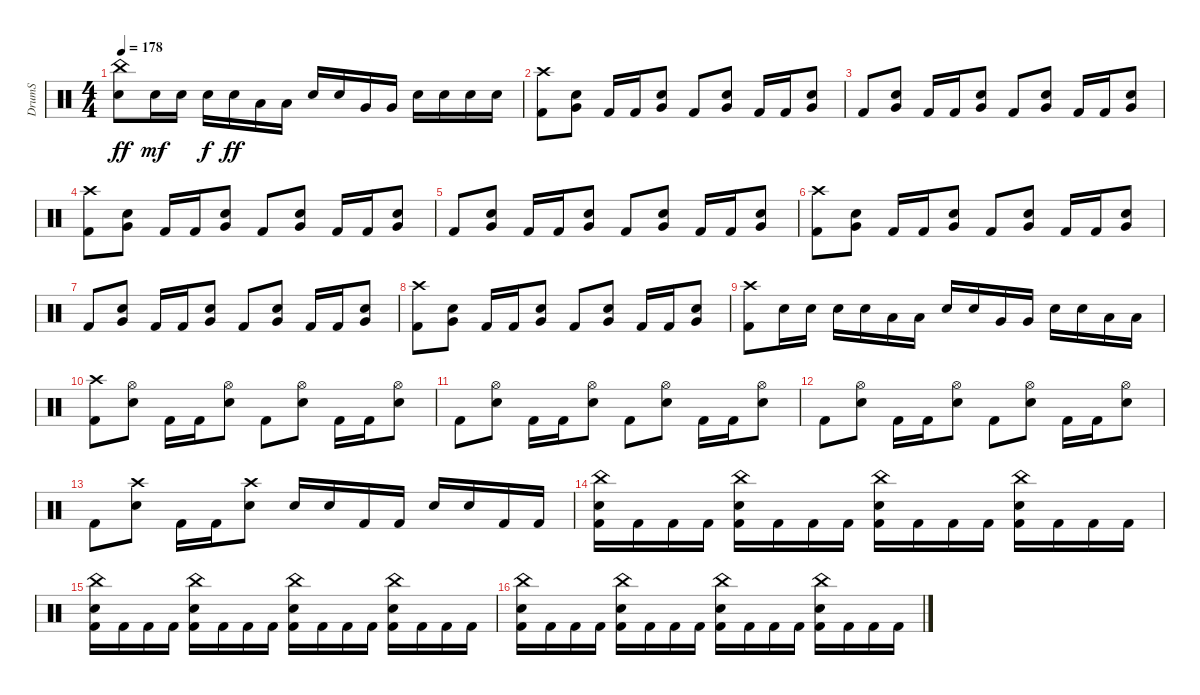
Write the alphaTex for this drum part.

\track ("DrumS" "DrumS") {instrument percussion}
\staff {score}
\articulation defaults
\ts (4 4)
\tempo 178
\clef neutral
\ks c
("China (hit)" "Electric Snare (hit)").8{dy ff} "Electric Snare (hit)".16{dy mf} "Electric Snare (hit)".16 "Electric Snare (hit)".16{dy f} "Electric Snare (hit)".16{dy ff} "Low Tom (hit)".16 "Low Tom (hit)".16 "Electric Snare (hit)".16 "Electric Snare (hit)".16 "Very Low Tom (hit)".16 "Very Low Tom (hit)".16 "Electric Snare (hit)".16 "Electric Snare (hit)".16 "Electric Snare (hit)".16 "Electric Snare (hit)".16 |
("Crash high (hit)" "Kick (hit) 2").8 ("Very Low Tom (hit)" "Electric Snare (hit)").8 "Kick (hit) 2".16 "Kick (hit) 2".16 ("Very Low Tom (hit)" "Electric Snare (hit)").8 "Kick (hit) 2".8 ("Very Low Tom (hit)" "Electric Snare (hit)").8 "Kick (hit) 2".16 "Kick (hit) 2".16 ("Very Low Tom (hit)" "Electric Snare (hit)").8 |
"Kick (hit) 2".8 ("Very Low Tom (hit)" "Electric Snare (hit)").8 "Kick (hit) 2".16 "Kick (hit) 2".16 ("Very Low Tom (hit)" "Electric Snare (hit)").8 "Kick (hit) 2".8 ("Very Low Tom (hit)" "Electric Snare (hit)").8 "Kick (hit) 2".16 "Kick (hit) 2".16 ("Very Low Tom (hit)" "Electric Snare (hit)").8 |
("Crash high (hit)" "Kick (hit) 2").8 ("Very Low Tom (hit)" "Electric Snare (hit)").8 "Kick (hit) 2".16 "Kick (hit) 2".16 ("Very Low Tom (hit)" "Electric Snare (hit)").8 "Kick (hit) 2".8 ("Very Low Tom (hit)" "Electric Snare (hit)").8 "Kick (hit) 2".16 "Kick (hit) 2".16 ("Very Low Tom (hit)" "Electric Snare (hit)").8 |
"Kick (hit) 2".8 ("Very Low Tom (hit)" "Electric Snare (hit)").8 "Kick (hit) 2".16 "Kick (hit) 2".16 ("Very Low Tom (hit)" "Electric Snare (hit)").8 "Kick (hit) 2".8 ("Very Low Tom (hit)" "Electric Snare (hit)").8 "Kick (hit) 2".16 "Kick (hit) 2".16 ("Very Low Tom (hit)" "Electric Snare (hit)").8 |
("Crash high (hit)" "Kick (hit) 2").8 ("Very Low Tom (hit)" "Electric Snare (hit)").8 "Kick (hit) 2".16 "Kick (hit) 2".16 ("Very Low Tom (hit)" "Electric Snare (hit)").8 "Kick (hit) 2".8 ("Very Low Tom (hit)" "Electric Snare (hit)").8 "Kick (hit) 2".16 "Kick (hit) 2".16 ("Very Low Tom (hit)" "Electric Snare (hit)").8 |
"Kick (hit) 2".8 ("Very Low Tom (hit)" "Electric Snare (hit)").8 "Kick (hit) 2".16 "Kick (hit) 2".16 ("Very Low Tom (hit)" "Electric Snare (hit)").8 "Kick (hit) 2".8 ("Very Low Tom (hit)" "Electric Snare (hit)").8 "Kick (hit) 2".16 "Kick (hit) 2".16 ("Very Low Tom (hit)" "Electric Snare (hit)").8 |
("Crash high (hit)" "Kick (hit) 2").8 ("Very Low Tom (hit)" "Electric Snare (hit)").8 "Kick (hit) 2".16 "Kick (hit) 2".16 ("Very Low Tom (hit)" "Electric Snare (hit)").8 "Kick (hit) 2".8 ("Very Low Tom (hit)" "Electric Snare (hit)").8 "Kick (hit) 2".16 "Kick (hit) 2".16 ("Very Low Tom (hit)" "Electric Snare (hit)").8 |
("Crash high (hit)" "Kick (hit) 2").8 "Electric Snare (hit)".16 "Electric Snare (hit)".16 "Electric Snare (hit)".16 "Electric Snare (hit)".16 "Low Tom (hit)".16 "Low Tom (hit)".16 "Electric Snare (hit)".16 "Electric Snare (hit)".16 "Very Low Tom (hit)".16 "Very Low Tom (hit)".16 "Electric Snare (hit)".16 "Electric Snare (hit)".16 "Low Floor Tom (hit)".16 "Low Floor Tom (hit)".16 |
("Crash high (hit)" "Kick (hit) 2").8 ("Hi-Hat (open)" "Electric Snare (hit)").8 "Kick (hit) 2".16 "Kick (hit) 2".16 ("Hi-Hat (open)" "Electric Snare (hit)").8 "Kick (hit) 2".8 ("Hi-Hat (open)" "Electric Snare (hit)").8 "Kick (hit) 2".16 "Kick (hit) 2".16 ("Hi-Hat (open)" "Electric Snare (hit)").8 |
"Kick (hit) 2".8 ("Hi-Hat (open)" "Electric Snare (hit)").8 "Kick (hit) 2".16 "Kick (hit) 2".16 ("Hi-Hat (open)" "Electric Snare (hit)").8 "Kick (hit) 2".8 ("Hi-Hat (open)" "Electric Snare (hit)").8 "Kick (hit) 2".16 "Kick (hit) 2".16 ("Hi-Hat (open)" "Electric Snare (hit)").8 |
"Kick (hit) 2".8 ("Hi-Hat (open)" "Electric Snare (hit)").8 "Kick (hit) 2".16 "Kick (hit) 2".16 ("Hi-Hat (open)" "Electric Snare (hit)").8 "Kick (hit) 2".8 ("Hi-Hat (open)" "Electric Snare (hit)").8 "Kick (hit) 2".16 "Kick (hit) 2".16 ("Hi-Hat (open)" "Electric Snare (hit)").8 |
"Kick (hit) 2".8 ("Crash high (hit)" "Electric Snare (hit)").8 "Kick (hit) 2".16 "Kick (hit) 2".16 ("Crash high (hit)" "Electric Snare (hit)").8 "Electric Snare (hit)".16 "Electric Snare (hit)".16 "Kick (hit) 2".16 "Kick (hit) 2".16 "Electric Snare (hit)".16 "Electric Snare (hit)".16 "Kick (hit) 2".16 "Kick (hit) 2".16 |
("China (hit)" "Electric Snare (hit)" "Kick (hit) 2").16 "Kick (hit) 2".16 "Kick (hit) 2".16 "Kick (hit) 2".16 ("China (hit)" "Electric Snare (hit)" "Kick (hit) 2").16 "Kick (hit) 2".16 "Kick (hit) 2".16 "Kick (hit) 2".16 ("China (hit)" "Electric Snare (hit)" "Kick (hit) 2").16 "Kick (hit) 2".16 "Kick (hit) 2".16 "Kick (hit) 2".16 ("China (hit)" "Electric Snare (hit)" "Kick (hit) 2").16 "Kick (hit) 2".16 "Kick (hit) 2".16 "Kick (hit) 2".16 |
("China (hit)" "Electric Snare (hit)" "Kick (hit) 2").16 "Kick (hit) 2".16 "Kick (hit) 2".16 "Kick (hit) 2".16 ("China (hit)" "Electric Snare (hit)" "Kick (hit) 2").16 "Kick (hit) 2".16 "Kick (hit) 2".16 "Kick (hit) 2".16 ("China (hit)" "Electric Snare (hit)" "Kick (hit) 2").16 "Kick (hit) 2".16 "Kick (hit) 2".16 "Kick (hit) 2".16 ("China (hit)" "Electric Snare (hit)" "Kick (hit) 2").16 "Kick (hit) 2".16 "Kick (hit) 2".16 "Kick (hit) 2".16 |
("China (hit)" "Electric Snare (hit)" "Kick (hit) 2").16 "Kick (hit) 2".16 "Kick (hit) 2".16 "Kick (hit) 2".16 ("China (hit)" "Electric Snare (hit)" "Kick (hit) 2").16 "Kick (hit) 2".16 "Kick (hit) 2".16 "Kick (hit) 2".16 ("China (hit)" "Electric Snare (hit)" "Kick (hit) 2").16 "Kick (hit) 2".16 "Kick (hit) 2".16 "Kick (hit) 2".16 ("China (hit)" "Electric Snare (hit)" "Kick (hit) 2").16 "Kick (hit) 2".16 "Kick (hit) 2".16 "Kick (hit) 2".16
